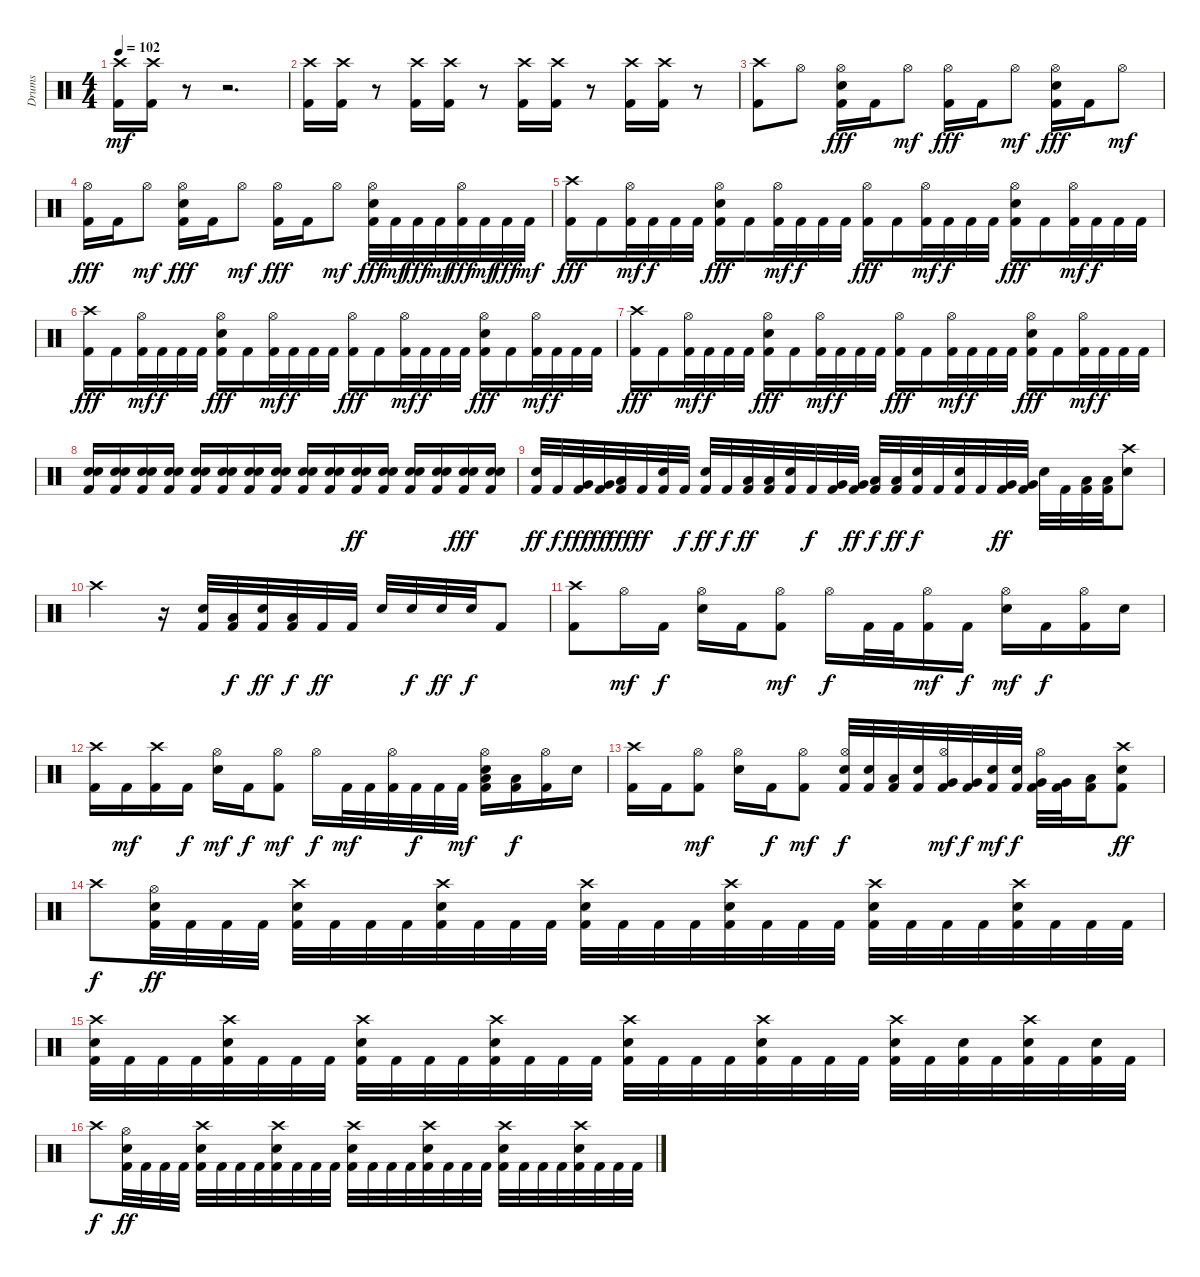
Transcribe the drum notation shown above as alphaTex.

\track ("Drums" "Drums") {instrument percussion}
\staff {score}
\articulation defaults
\ts (4 4)
\tempo 102
\clef neutral
\ks c
("Crash high (hit)" "Kick (hit) 2").16{dy mf} ("Crash high (hit)" "Kick (hit) 2").16 r.8 r.2{d} |
("Crash high (hit)" "Kick (hit) 2").16 ("Crash high (hit)" "Kick (hit) 2").16 r.8 ("Crash high (hit)" "Kick (hit) 2").16 ("Crash high (hit)" "Kick (hit) 2").16 r.8 ("Crash high (hit)" "Kick (hit) 2").16 ("Crash high (hit)" "Kick (hit) 2").16 r.8 ("Crash high (hit)" "Kick (hit) 2").16 ("Crash high (hit)" "Kick (hit) 2").16 r.8 |
("Crash high (hit)" "Kick (hit) 2").8 "Hi-Hat (open)".8 ("Hi-Hat (open)" "Electric Snare (hit)" "Kick (hit) 2").16{dy fff} "Kick (hit) 2".16 "Hi-Hat (open)".8{dy mf} ("Hi-Hat (open)" "Kick (hit) 2").16{dy fff} "Kick (hit) 2".16 "Hi-Hat (open)".8{dy mf} ("Hi-Hat (open)" "Electric Snare (hit)" "Kick (hit) 2").16{dy fff} "Kick (hit) 2".16 "Hi-Hat (open)".8{dy mf} |
("Hi-Hat (open)" "Kick (hit) 2").16{dy fff} "Kick (hit) 2".16 "Hi-Hat (open)".8{dy mf} ("Hi-Hat (open)" "Electric Snare (hit)" "Kick (hit) 2").16{dy fff} "Kick (hit) 2".16 "Hi-Hat (open)".8{dy mf} ("Hi-Hat (open)" "Kick (hit) 2").16{dy fff} "Kick (hit) 2".16 "Hi-Hat (open)".8{dy mf} ("Hi-Hat (open)" "Electric Snare (hit)" "Kick (hit) 2").32{dy fff} "Kick (hit) 2".32{dy mf} "Kick (hit) 2".32{dy fff} "Kick (hit) 2".32{dy mf} ("Hi-Hat (open)" "Kick (hit) 2").32{dy fff} "Kick (hit) 2".32{dy mf} "Kick (hit) 2".32{dy fff} "Kick (hit) 2".32{dy mf} |
("Crash high (hit)" "Kick (hit) 2").16{dy fff} "Kick (hit) 2".16 ("Hi-Hat (open)" "Kick (hit) 2").32{dy mf} "Kick (hit) 2".32{dy f} "Kick (hit) 2".32 "Kick (hit) 2".32 ("Hi-Hat (open)" "Electric Snare (hit)" "Kick (hit) 2").16{dy fff} "Kick (hit) 2".16 ("Hi-Hat (open)" "Kick (hit) 2").32{dy mf} "Kick (hit) 2".32{dy f} "Kick (hit) 2".32 "Kick (hit) 2".32 ("Hi-Hat (open)" "Kick (hit) 2").16{dy fff} "Kick (hit) 2".16 ("Hi-Hat (open)" "Kick (hit) 2").32{dy mf} "Kick (hit) 2".32{dy f} "Kick (hit) 2".32 "Kick (hit) 2".32 ("Hi-Hat (open)" "Electric Snare (hit)" "Kick (hit) 2").16{dy fff} "Kick (hit) 2".16 ("Hi-Hat (open)" "Kick (hit) 2").32{dy mf} "Kick (hit) 2".32{dy f} "Kick (hit) 2".32 "Kick (hit) 2".32 |
("Crash high (hit)" "Kick (hit) 2").16{dy fff} "Kick (hit) 2".16 ("Hi-Hat (open)" "Kick (hit) 2").32{dy mf} "Kick (hit) 2".32{dy f} "Kick (hit) 2".32 "Kick (hit) 2".32 ("Hi-Hat (open)" "Electric Snare (hit)" "Kick (hit) 2").16{dy fff} "Kick (hit) 2".16 ("Hi-Hat (open)" "Kick (hit) 2").32{dy mf} "Kick (hit) 2".32{dy f} "Kick (hit) 2".32 "Kick (hit) 2".32 ("Hi-Hat (open)" "Kick (hit) 2").16{dy fff} "Kick (hit) 2".16 ("Hi-Hat (open)" "Kick (hit) 2").32{dy mf} "Kick (hit) 2".32{dy f} "Kick (hit) 2".32 "Kick (hit) 2".32 ("Hi-Hat (open)" "Electric Snare (hit)" "Kick (hit) 2").16{dy fff} "Kick (hit) 2".16 ("Hi-Hat (open)" "Kick (hit) 2").32{dy mf} "Kick (hit) 2".32{dy f} "Kick (hit) 2".32 "Kick (hit) 2".32 |
("Crash high (hit)" "Kick (hit) 2").16{dy fff} "Kick (hit) 2".16 ("Hi-Hat (open)" "Kick (hit) 2").32{dy mf} "Kick (hit) 2".32{dy f} "Kick (hit) 2".32 "Kick (hit) 2".32 ("Hi-Hat (open)" "Electric Snare (hit)" "Kick (hit) 2").16{dy fff} "Kick (hit) 2".16 ("Hi-Hat (open)" "Kick (hit) 2").32{dy mf} "Kick (hit) 2".32{dy f} "Kick (hit) 2".32 "Kick (hit) 2".32 ("Hi-Hat (open)" "Kick (hit) 2").16{dy fff} "Kick (hit) 2".16 ("Hi-Hat (open)" "Kick (hit) 2").32{dy mf} "Kick (hit) 2".32{dy f} "Kick (hit) 2".32 "Kick (hit) 2".32 ("Hi-Hat (open)" "Electric Snare (hit)" "Kick (hit) 2").16{dy fff} "Kick (hit) 2".16 ("Hi-Hat (open)" "Kick (hit) 2").32{dy mf} "Kick (hit) 2".32{dy f} "Kick (hit) 2".32 "Kick (hit) 2".32 |
("Electric Snare (hit)" "Electric Snare (hit)" "Kick (hit) 2").16 ("Electric Snare (hit)" "Electric Snare (hit)" "Kick (hit) 2").16 ("Electric Snare (hit)" "Electric Snare (hit)" "Kick (hit) 2").16 ("Electric Snare (hit)" "Electric Snare (hit)" "Kick (hit) 2").16 ("Electric Snare (hit)" "Electric Snare (hit)" "Kick (hit) 2").16 ("Electric Snare (hit)" "Electric Snare (hit)" "Kick (hit) 2").16 ("Electric Snare (hit)" "Electric Snare (hit)" "Kick (hit) 2").16 ("Electric Snare (hit)" "Electric Snare (hit)" "Kick (hit) 2").16 ("Electric Snare (hit)" "Electric Snare (hit)" "Kick (hit) 2").16 ("Electric Snare (hit)" "Electric Snare (hit)" "Kick (hit) 2").16 ("Electric Snare (hit)" "Electric Snare (hit)" "Kick (hit) 2").16{dy ff} ("Electric Snare (hit)" "Electric Snare (hit)" "Kick (hit) 2").16 ("Electric Snare (hit)" "Electric Snare (hit)" "Kick (hit) 2").16 ("Electric Snare (hit)" "Electric Snare (hit)" "Kick (hit) 2").16 ("Electric Snare (hit)" "Electric Snare (hit)" "Kick (hit) 2").16{dy fff} ("Electric Snare (hit)" "Electric Snare (hit)" "Kick (hit) 2").16 |
("Electric Snare (hit)" "Kick (hit) 2").32{dy ff} "Kick (hit) 2".32{dy f} ("Very Low Tom (hit)" "Kick (hit) 2").32{dy fff} ("Very Low Tom (hit)" "Kick (hit) 2").32{dy ff} ("Low Floor Tom (hit)" "Kick (hit) 2").32{dy fff} "Kick (hit) 2".32{dy ff} ("Electric Snare (hit)" "Kick (hit) 2").32 "Kick (hit) 2".32{dy f} ("Electric Snare (hit)" "Kick (hit) 2").32{dy ff} "Kick (hit) 2".32{dy f} ("Low Floor Tom (hit)" "Kick (hit) 2").32{dy ff} ("Low Floor Tom (hit)" "Kick (hit) 2").32 ("Electric Snare (hit)" "Kick (hit) 2").32 "Kick (hit) 2".32{dy f} ("Very Low Tom (hit)" "Kick (hit) 2").32 ("Very Low Tom (hit)" "Kick (hit) 2").32{dy ff} ("Low Tom (hit)" "Kick (hit) 2").32{dy f} ("Low Tom (hit)" "Kick (hit) 2").32{dy ff} ("Electric Snare (hit)" "Kick (hit) 2").32{dy f} "Kick (hit) 2".32 ("Electric Snare (hit)" "Kick (hit) 2").32 "Kick (hit) 2".32 ("Very Low Tom (hit)" "Kick (hit) 2").32{dy ff} ("Very Low Tom (hit)" "Kick (hit) 2").32 "Electric Snare (hit)".32 "Kick (hit) 2".32 ("Low Tom (hit)" "Kick (hit) 2").32 ("Low Tom (hit)" "Kick (hit) 2").32 ("Crash high (hit)" "Electric Snare (hit)").8 |
"Crash high (hit)".2 r.16 ("Electric Snare (hit)" "Kick (hit) 2").32 ("Low Tom (hit)" "Kick (hit) 2").32{dy f} ("Electric Snare (hit)" "Kick (hit) 2").32{dy ff} ("Low Tom (hit)" "Kick (hit) 2").32{dy f} "Kick (hit) 2".32{dy ff} "Kick (hit) 2".32 "Electric Snare (hit)".32 "Electric Snare (hit)".32{dy f} "Electric Snare (hit)".32{dy ff} "Electric Snare (hit)".32{dy f} "Kick (hit) 2".8 |
("Crash high (hit)" "Kick (hit) 2").8 "Hi-Hat (open)".16{dy mf} "Kick (hit) 2".16{dy f} ("Hi-Hat (open)" "Electric Snare (hit)").16 "Kick (hit) 2".16 ("Hi-Hat (open)" "Kick (hit) 2").8{dy mf} "Hi-Hat (open)".16{dy f} "Kick (hit) 2".32 "Kick (hit) 2".32 ("Hi-Hat (open)" "Kick (hit) 2").16{dy mf} "Kick (hit) 2".16{dy f} ("Hi-Hat (open)" "Electric Snare (hit)").16{dy mf} "Kick (hit) 2".16{dy f} ("Hi-Hat (open)" "Kick (hit) 2").16 "Electric Snare (hit)".16 |
("Crash high (hit)" "Kick (hit) 2").16 "Kick (hit) 2".16{dy mf} ("Crash high (hit)" "Kick (hit) 2").16 "Kick (hit) 2".16{dy f} ("Hi-Hat (open)" "Electric Snare (hit)").16{dy mf} "Kick (hit) 2".16{dy f} ("Hi-Hat (open)" "Kick (hit) 2").8{dy mf} "Hi-Hat (open)".16{dy f} "Kick (hit) 2".32{dy mf} "Kick (hit) 2".32 ("Hi-Hat (open)" "Kick (hit) 2").32 "Kick (hit) 2".32{dy f} "Kick (hit) 2".32 "Kick (hit) 2".32{dy mf} ("Hi-Hat (open)" "Electric Snare (hit)" "Low Floor Tom (hit)" "Kick (hit) 2").16 ("Low Floor Tom (hit)" "Kick (hit) 2").16{dy f} ("Hi-Hat (open)" "Kick (hit) 2").16 "Electric Snare (hit)".16 |
("Crash high (hit)" "Kick (hit) 2").16 "Kick (hit) 2".16 ("Hi-Hat (open)" "Kick (hit) 2").8{dy mf} ("Hi-Hat (open)" "Electric Snare (hit)").16 "Kick (hit) 2".16{dy f} ("Hi-Hat (open)" "Kick (hit) 2").8{dy mf} ("Hi-Hat (open)" "Electric Snare (hit)" "Kick (hit) 2").32{dy f} ("Electric Snare (hit)" "Kick (hit) 2").32 ("Low Tom (hit)" "Kick (hit) 2").32 ("Electric Snare (hit)" "Kick (hit) 2").32 ("Hi-Hat (open)" "Very Low Tom (hit)" "Kick (hit) 2").32{dy mf} ("Very Low Tom (hit)" "Kick (hit) 2").32{dy f} ("Electric Snare (hit)" "Kick (hit) 2").32{dy mf} ("Electric Snare (hit)" "Kick (hit) 2").32{dy f} ("Hi-Hat (open)" "Very Low Tom (hit)" "Kick (hit) 2").32 ("Very Low Tom (hit)" "Kick (hit) 2").32 ("Low Floor Tom (hit)" "Kick (hit) 2").16 ("Crash high (hit)" "Electric Snare (hit)" "Kick (hit) 2").8{dy ff} |
"Crash high (hit)".8{dy f} ("Hi-Hat (open)" "Electric Snare (hit)" "Kick (hit) 2").32{dy ff} "Kick (hit) 2".32 "Kick (hit) 2".32 "Kick (hit) 2".32 ("Crash high (hit)" "Electric Snare (hit)" "Kick (hit) 2").32 "Kick (hit) 2".32 "Kick (hit) 2".32 "Kick (hit) 2".32 ("Crash high (hit)" "Electric Snare (hit)" "Kick (hit) 2").32 "Kick (hit) 2".32 "Kick (hit) 2".32 "Kick (hit) 2".32 ("Crash high (hit)" "Electric Snare (hit)" "Kick (hit) 2").32 "Kick (hit) 2".32 "Kick (hit) 2".32 "Kick (hit) 2".32 ("Crash high (hit)" "Electric Snare (hit)" "Kick (hit) 2").32 "Kick (hit) 2".32 "Kick (hit) 2".32 "Kick (hit) 2".32 ("Crash high (hit)" "Electric Snare (hit)" "Kick (hit) 2").32 "Kick (hit) 2".32 "Kick (hit) 2".32 "Kick (hit) 2".32 ("Crash high (hit)" "Electric Snare (hit)" "Kick (hit) 2").32 "Kick (hit) 2".32 "Kick (hit) 2".32 "Kick (hit) 2".32 |
("Crash high (hit)" "Electric Snare (hit)" "Kick (hit) 2").32 "Kick (hit) 2".32 "Kick (hit) 2".32 "Kick (hit) 2".32 ("Crash high (hit)" "Electric Snare (hit)" "Kick (hit) 2").32 "Kick (hit) 2".32 "Kick (hit) 2".32 "Kick (hit) 2".32 ("Crash high (hit)" "Electric Snare (hit)" "Kick (hit) 2").32 "Kick (hit) 2".32 "Kick (hit) 2".32 "Kick (hit) 2".32 ("Crash high (hit)" "Electric Snare (hit)" "Kick (hit) 2").32 "Kick (hit) 2".32 "Kick (hit) 2".32 "Kick (hit) 2".32 ("Crash high (hit)" "Electric Snare (hit)" "Kick (hit) 2").32 "Kick (hit) 2".32 "Kick (hit) 2".32 "Kick (hit) 2".32 ("Crash high (hit)" "Electric Snare (hit)" "Kick (hit) 2").32 "Kick (hit) 2".32 "Kick (hit) 2".32 "Kick (hit) 2".32 ("Crash high (hit)" "Electric Snare (hit)" "Kick (hit) 2").32 "Kick (hit) 2".32 ("Electric Snare (hit)" "Kick (hit) 2").32 "Kick (hit) 2".32 ("Crash high (hit)" "Electric Snare (hit)" "Kick (hit) 2").32 "Kick (hit) 2".32 ("Electric Snare (hit)" "Kick (hit) 2").32 "Kick (hit) 2".32 |
"Crash high (hit)".8{dy f} ("Hi-Hat (open)" "Electric Snare (hit)" "Kick (hit) 2").32{dy ff} "Kick (hit) 2".32 "Kick (hit) 2".32 "Kick (hit) 2".32 ("Crash high (hit)" "Electric Snare (hit)" "Kick (hit) 2").32 "Kick (hit) 2".32 "Kick (hit) 2".32 "Kick (hit) 2".32 ("Crash high (hit)" "Electric Snare (hit)" "Kick (hit) 2").32 "Kick (hit) 2".32 "Kick (hit) 2".32 "Kick (hit) 2".32 ("Crash high (hit)" "Electric Snare (hit)" "Kick (hit) 2").32 "Kick (hit) 2".32 "Kick (hit) 2".32 "Kick (hit) 2".32 ("Crash high (hit)" "Electric Snare (hit)" "Kick (hit) 2").32 "Kick (hit) 2".32 "Kick (hit) 2".32 "Kick (hit) 2".32 ("Crash high (hit)" "Electric Snare (hit)" "Kick (hit) 2").32 "Kick (hit) 2".32 "Kick (hit) 2".32 "Kick (hit) 2".32 ("Crash high (hit)" "Electric Snare (hit)" "Kick (hit) 2").32 "Kick (hit) 2".32 "Kick (hit) 2".32 "Kick (hit) 2".32
